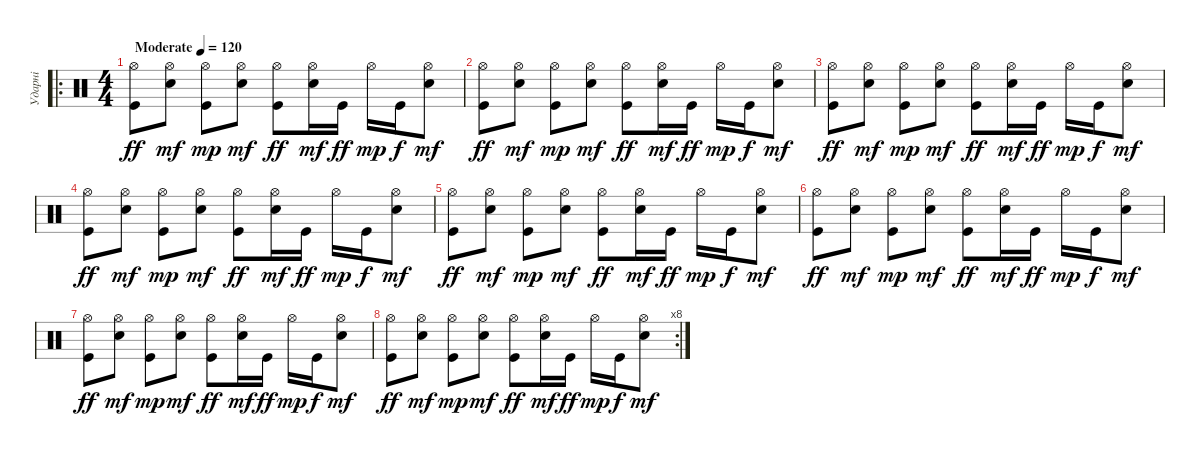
\track ("Ударні" "Ударні") {instrument percussion}
\staff {score}
\articulation defaults
\ro
\ts (4 4)
\tempo (120 "Moderate")
\clef neutral
\ks c
("Hi-Hat (open)" "Kick (hit)").8{dy ff} ("Hi-Hat (open)" "Snare (hit) 2").8{dy mf} ("Hi-Hat (open)" "Kick (hit)").8{dy mp} ("Hi-Hat (open)" "Snare (hit) 2").8{dy mf} ("Hi-Hat (open)" "Kick (hit)").8{dy ff} ("Hi-Hat (open)" "Snare (hit) 2").16{dy mf} "Kick (hit)".16{dy ff} "Hi-Hat (open)".16{dy mp} "Kick (hit)".16{dy f} ("Hi-Hat (open)" "Snare (hit) 2").8{dy mf} |
("Hi-Hat (open)" "Kick (hit)").8{dy ff} ("Hi-Hat (open)" "Snare (hit) 2").8{dy mf} ("Hi-Hat (open)" "Kick (hit)").8{dy mp} ("Hi-Hat (open)" "Snare (hit) 2").8{dy mf} ("Hi-Hat (open)" "Kick (hit)").8{dy ff} ("Hi-Hat (open)" "Snare (hit) 2").16{dy mf} "Kick (hit)".16{dy ff} "Hi-Hat (open)".16{dy mp} "Kick (hit)".16{dy f} ("Hi-Hat (open)" "Snare (hit) 2").8{dy mf} |
("Hi-Hat (open)" "Kick (hit)").8{dy ff} ("Hi-Hat (open)" "Snare (hit) 2").8{dy mf} ("Hi-Hat (open)" "Kick (hit)").8{dy mp} ("Hi-Hat (open)" "Snare (hit) 2").8{dy mf} ("Hi-Hat (open)" "Kick (hit)").8{dy ff} ("Hi-Hat (open)" "Snare (hit) 2").16{dy mf} "Kick (hit)".16{dy ff} "Hi-Hat (open)".16{dy mp} "Kick (hit)".16{dy f} ("Hi-Hat (open)" "Snare (hit) 2").8{dy mf} |
("Hi-Hat (open)" "Kick (hit)").8{dy ff} ("Hi-Hat (open)" "Snare (hit) 2").8{dy mf} ("Hi-Hat (open)" "Kick (hit)").8{dy mp} ("Hi-Hat (open)" "Snare (hit) 2").8{dy mf} ("Hi-Hat (open)" "Kick (hit)").8{dy ff} ("Hi-Hat (open)" "Snare (hit) 2").16{dy mf} "Kick (hit)".16{dy ff} "Hi-Hat (open)".16{dy mp} "Kick (hit)".16{dy f} ("Hi-Hat (open)" "Snare (hit) 2").8{dy mf} |
("Hi-Hat (open)" "Kick (hit)").8{dy ff} ("Hi-Hat (open)" "Snare (hit) 2").8{dy mf} ("Hi-Hat (open)" "Kick (hit)").8{dy mp} ("Hi-Hat (open)" "Snare (hit) 2").8{dy mf} ("Hi-Hat (open)" "Kick (hit)").8{dy ff} ("Hi-Hat (open)" "Snare (hit) 2").16{dy mf} "Kick (hit)".16{dy ff} "Hi-Hat (open)".16{dy mp} "Kick (hit)".16{dy f} ("Hi-Hat (open)" "Snare (hit) 2").8{dy mf} |
("Hi-Hat (open)" "Kick (hit)").8{dy ff} ("Hi-Hat (open)" "Snare (hit) 2").8{dy mf} ("Hi-Hat (open)" "Kick (hit)").8{dy mp} ("Hi-Hat (open)" "Snare (hit) 2").8{dy mf} ("Hi-Hat (open)" "Kick (hit)").8{dy ff} ("Hi-Hat (open)" "Snare (hit) 2").16{dy mf} "Kick (hit)".16{dy ff} "Hi-Hat (open)".16{dy mp} "Kick (hit)".16{dy f} ("Hi-Hat (open)" "Snare (hit) 2").8{dy mf} |
("Hi-Hat (open)" "Kick (hit)").8{dy ff} ("Hi-Hat (open)" "Snare (hit) 2").8{dy mf} ("Hi-Hat (open)" "Kick (hit)").8{dy mp} ("Hi-Hat (open)" "Snare (hit) 2").8{dy mf} ("Hi-Hat (open)" "Kick (hit)").8{dy ff} ("Hi-Hat (open)" "Snare (hit) 2").16{dy mf} "Kick (hit)".16{dy ff} "Hi-Hat (open)".16{dy mp} "Kick (hit)".16{dy f} ("Hi-Hat (open)" "Snare (hit) 2").8{dy mf} |
\rc 8
("Hi-Hat (open)" "Kick (hit)").8{dy ff} ("Hi-Hat (open)" "Snare (hit) 2").8{dy mf} ("Hi-Hat (open)" "Kick (hit)").8{dy mp} ("Hi-Hat (open)" "Snare (hit) 2").8{dy mf} ("Hi-Hat (open)" "Kick (hit)").8{dy ff} ("Hi-Hat (open)" "Snare (hit) 2").16{dy mf} "Kick (hit)".16{dy ff} "Hi-Hat (open)".16{dy mp} "Kick (hit)".16{dy f} ("Hi-Hat (open)" "Snare (hit) 2").8{dy mf}
